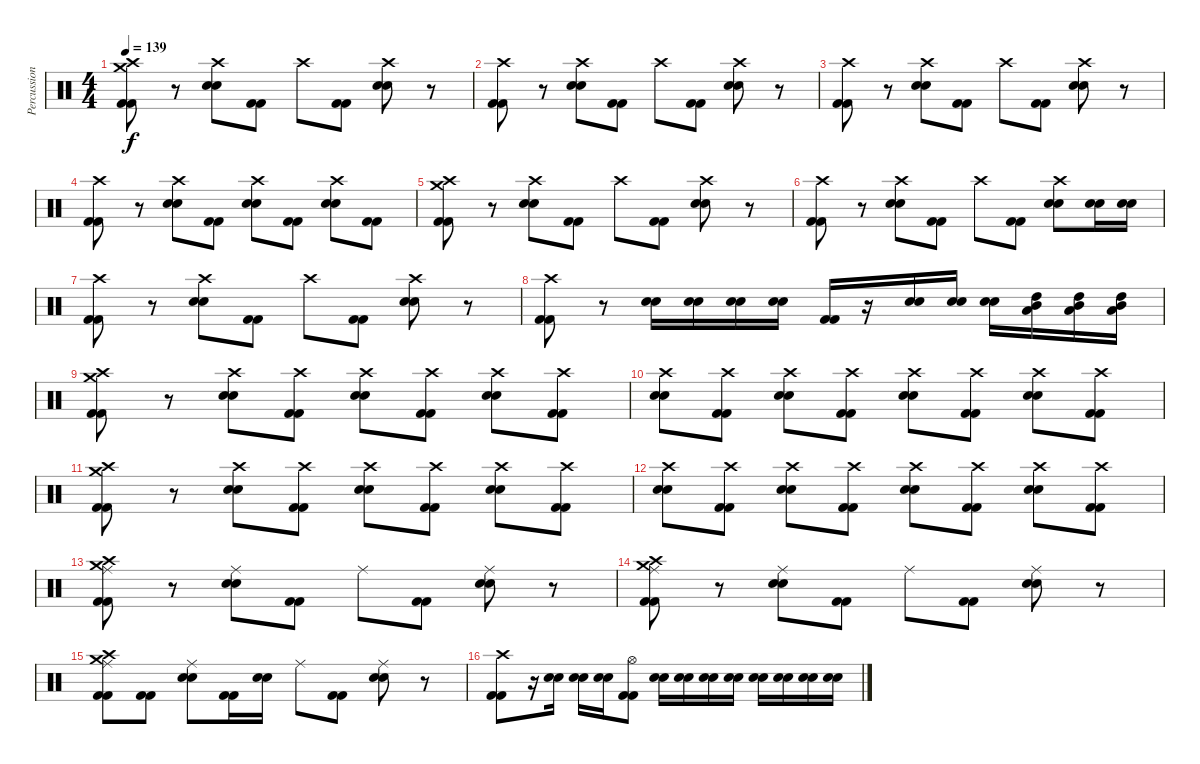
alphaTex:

\track ("Percussioni" "Percussion") {instrument percussion}
\staff {score}
\articulation defaults
\ts (4 4)
\tempo 139
\clef neutral
\ks c
("Crash medium (hit)" "Crash high (hit)" "Kick (hit) 2" "Kick (hit) 2").8{dy f} r.8 ("Crash high (hit)" "Electric Snare (hit)" "Snare (hit) 2").8 ("Kick (hit) 2" "Kick (hit) 2").8 "Crash high (hit)".8 ("Kick (hit) 2" "Kick (hit) 2").8 ("Crash high (hit)" "Electric Snare (hit)" "Snare (hit) 2").8 r.8 |
("Crash high (hit)" "Kick (hit) 2" "Kick (hit) 2").8 r.8 ("Crash high (hit)" "Electric Snare (hit)" "Snare (hit) 2").8 ("Kick (hit) 2" "Kick (hit) 2").8 "Crash high (hit)".8 ("Kick (hit) 2" "Kick (hit) 2").8 ("Crash high (hit)" "Electric Snare (hit)" "Snare (hit) 2").8 r.8 |
("Crash high (hit)" "Kick (hit) 2" "Kick (hit) 2").8 r.8 ("Crash high (hit)" "Electric Snare (hit)" "Snare (hit) 2").8 ("Kick (hit) 2" "Kick (hit) 2").8 "Crash high (hit)".8 ("Kick (hit) 2" "Kick (hit) 2").8 ("Crash high (hit)" "Electric Snare (hit)" "Snare (hit) 2").8 r.8 |
("Crash high (hit)" "Kick (hit) 2" "Kick (hit) 2").8 r.8 ("Crash high (hit)" "Electric Snare (hit)" "Snare (hit) 2").8 ("Kick (hit) 2" "Kick (hit) 2").8 ("Crash high (hit)" "Snare (hit) 2" "Electric Snare (hit)").8 ("Kick (hit) 2" "Kick (hit) 2").8 ("Crash high (hit)" "Electric Snare (hit)" "Snare (hit) 2").8 ("Kick (hit) 2" "Kick (hit) 2").8 |
("Crash medium (hit)" "Crash high (hit)" "Kick (hit) 2" "Kick (hit) 2").8 r.8 ("Crash high (hit)" "Electric Snare (hit)" "Snare (hit) 2").8 ("Kick (hit) 2" "Kick (hit) 2").8 "Crash high (hit)".8 ("Kick (hit) 2" "Kick (hit) 2").8 ("Crash high (hit)" "Electric Snare (hit)" "Snare (hit) 2").8 r.8 |
("Crash high (hit)" "Kick (hit) 2" "Kick (hit) 2").8 r.8 ("Crash high (hit)" "Electric Snare (hit)" "Snare (hit) 2").8 ("Kick (hit) 2" "Kick (hit) 2").8 "Crash high (hit)".8 ("Kick (hit) 2" "Kick (hit) 2").8 ("Crash high (hit)" "Electric Snare (hit)" "Snare (hit) 2").8 ("Snare (hit) 2" "Electric Snare (hit)").16 ("Snare (hit) 2" "Electric Snare (hit)").16 |
("Crash high (hit)" "Kick (hit) 2" "Kick (hit) 2").8 r.8 ("Crash high (hit)" "Electric Snare (hit)" "Snare (hit) 2").8 ("Kick (hit) 2" "Kick (hit) 2").8 "Crash high (hit)".8 ("Kick (hit) 2" "Kick (hit) 2").8 ("Crash high (hit)" "Electric Snare (hit)" "Snare (hit) 2").8 r.8 |
("Crash high (hit)" "Kick (hit) 2" "Kick (hit) 2").8 r.8 ("Snare (hit) 2" "Electric Snare (hit)").16 ("Snare (hit) 2" "Electric Snare (hit)").16 ("Snare (hit) 2" "Electric Snare (hit)").16 ("Snare (hit) 2" "Electric Snare (hit)").16 ("Kick (hit) 2" "Kick (hit) 2").16 r.16 ("Electric Snare (hit)" "Snare (hit) 2").16 ("Electric Snare (hit)" "Snare (hit) 2").16 ("Electric Snare (hit)" "Snare (hit) 2").16 ("Low Tom (hit)" "Mid Tom (hit)" "High Tom (hit)").16 ("Low Tom (hit)" "Mid Tom (hit)" "High Tom (hit)").16 ("Low Tom (hit)" "Mid Tom (hit)" "High Tom (hit)").16 |
("Crash medium (hit)" "Crash high (hit)" "Kick (hit) 2" "Kick (hit) 2").8 r.8 ("Crash high (hit)" "Electric Snare (hit)" "Snare (hit) 2").8 ("Crash high (hit)" "Kick (hit) 2" "Kick (hit) 2").8 ("Crash high (hit)" "Electric Snare (hit)" "Snare (hit) 2").8 ("Crash high (hit)" "Kick (hit) 2" "Kick (hit) 2").8 ("Crash high (hit)" "Electric Snare (hit)" "Snare (hit) 2").8 ("Crash high (hit)" "Kick (hit) 2" "Kick (hit) 2").8 |
("Crash high (hit)" "Electric Snare (hit)" "Snare (hit) 2").8 ("Crash high (hit)" "Kick (hit) 2" "Kick (hit) 2").8 ("Crash high (hit)" "Electric Snare (hit)" "Snare (hit) 2").8 ("Crash high (hit)" "Kick (hit) 2" "Kick (hit) 2").8 ("Crash high (hit)" "Electric Snare (hit)" "Snare (hit) 2").8 ("Crash high (hit)" "Kick (hit) 2" "Kick (hit) 2").8 ("Crash high (hit)" "Electric Snare (hit)" "Snare (hit) 2").8 ("Crash high (hit)" "Kick (hit) 2" "Kick (hit) 2").8 |
("Crash medium (hit)" "Crash high (hit)" "Kick (hit) 2" "Kick (hit) 2").8 r.8 ("Crash high (hit)" "Electric Snare (hit)" "Snare (hit) 2").8 ("Crash high (hit)" "Kick (hit) 2" "Kick (hit) 2").8 ("Crash high (hit)" "Electric Snare (hit)" "Snare (hit) 2").8 ("Crash high (hit)" "Kick (hit) 2" "Kick (hit) 2").8 ("Crash high (hit)" "Electric Snare (hit)" "Snare (hit) 2").8 ("Crash high (hit)" "Kick (hit) 2" "Kick (hit) 2").8 |
("Crash high (hit)" "Electric Snare (hit)" "Snare (hit) 2").8 ("Crash high (hit)" "Kick (hit) 2" "Kick (hit) 2").8 ("Crash high (hit)" "Electric Snare (hit)" "Snare (hit) 2").8 ("Crash high (hit)" "Kick (hit) 2" "Kick (hit) 2").8 ("Crash high (hit)" "Electric Snare (hit)" "Snare (hit) 2").8 ("Crash high (hit)" "Kick (hit) 2" "Kick (hit) 2").8 ("Crash high (hit)" "Electric Snare (hit)" "Snare (hit) 2").8 ("Crash high (hit)" "Kick (hit) 2" "Kick (hit) 2").8 |
("Ride (middle)" "Crash medium (hit)" "Crash high (hit)" "Kick (hit) 2" "Kick (hit) 2").8 r.8 ("Ride (middle)" "Electric Snare (hit)" "Snare (hit) 2").8 ("Kick (hit) 2" "Kick (hit) 2").8 "Ride (middle)".8 ("Kick (hit) 2" "Kick (hit) 2").8 ("Ride (middle)" "Electric Snare (hit)" "Snare (hit) 2").8 r.8 |
("Ride (middle)" "Crash medium (hit)" "Crash high (hit)" "Kick (hit) 2" "Kick (hit) 2").8 r.8 ("Ride (middle)" "Electric Snare (hit)" "Snare (hit) 2").8 ("Kick (hit) 2" "Kick (hit) 2").8 "Ride (middle)".8 ("Kick (hit) 2" "Kick (hit) 2").8 ("Ride (middle)" "Electric Snare (hit)" "Snare (hit) 2").8 r.8 |
("Ride (middle)" "Crash medium (hit)" "Crash high (hit)" "Kick (hit) 2" "Kick (hit) 2").8 ("Kick (hit) 2" "Kick (hit) 2").8 ("Ride (middle)" "Electric Snare (hit)" "Snare (hit) 2").8 ("Kick (hit) 2" "Kick (hit) 2").16 ("Electric Snare (hit)" "Snare (hit) 2").16 "Ride (middle)".8 ("Kick (hit) 2" "Kick (hit) 2").8 ("Ride (middle)" "Electric Snare (hit)" "Snare (hit) 2").8 r.8 |
("Crash high (hit)" "Kick (hit) 2" "Kick (hit) 2").8 r.16 ("Snare (hit) 2" "Electric Snare (hit)").16 ("Snare (hit) 2" "Electric Snare (hit)").16 ("Snare (hit) 2" "Electric Snare (hit)").16 ("Hi-Hat (open)" "Kick (hit) 2" "Kick (hit) 2").8 ("Snare (hit) 2" "Electric Snare (hit)").16 ("Snare (hit) 2" "Electric Snare (hit)").16 ("Snare (hit) 2" "Electric Snare (hit)").16 ("Snare (hit) 2" "Electric Snare (hit)").16 ("Snare (hit) 2" "Electric Snare (hit)").16 ("Snare (hit) 2" "Electric Snare (hit)").16 ("Snare (hit) 2" "Electric Snare (hit)").16 ("Snare (hit) 2" "Electric Snare (hit)").16
